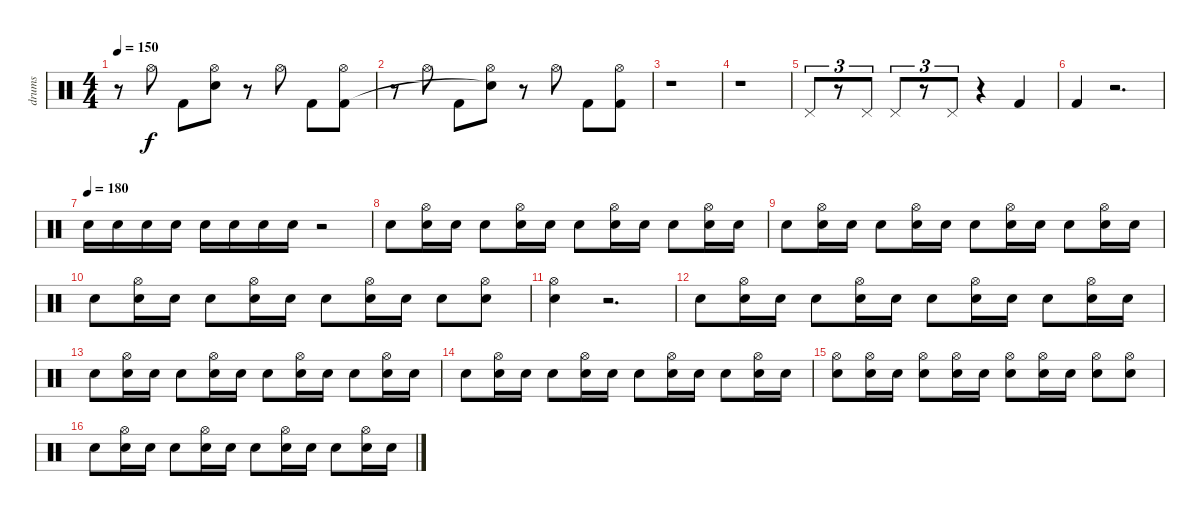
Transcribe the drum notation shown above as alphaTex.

\track ("drums" "drums") {instrument percussion}
\staff {score}
\articulation defaults
\ts (4 4)
\tempo 150
\clef neutral
\ks c
r.8{dy f} "Hi-Hat (open)".8 "Kick (hit) 2".8 ("Hi-Hat (open)" "Snare (hit)"{t}).8 r.8 "Hi-Hat (open)".8 "Kick (hit) 2".8 ("Hi-Hat (open)" "Kick (hit) 2").8 |
r.8 "Hi-Hat (open)".8 "Kick (hit) 2".8 ("Hi-Hat (open)" "Snare (hit)"{t}).8 r.8 "Hi-Hat (open)".8 "Kick (hit) 2".8 ("Hi-Hat (open)" "Kick (hit) 2").8 |
r.1 |
r.1 |
"Pedal Hi-Hat (hit)".8{tu (3 2)} r.8{tu (3 2)} "Pedal Hi-Hat (hit)".8{tu (3 2)} "Pedal Hi-Hat (hit)".8{tu (3 2)} r.8{tu (3 2)} "Pedal Hi-Hat (hit)".8{tu (3 2)} r.4 "Kick (hit) 2".4 |
"Kick (hit) 2".4 r.2{d} |
\tempo (180)
"Snare (hit) 2".16 "Snare (hit) 2".16 "Snare (hit) 2".16 "Snare (hit) 2".16 "Snare (hit) 2".16 "Snare (hit) 2".16 "Snare (hit) 2".16 "Snare (hit) 2".16 r.2 |
"Snare (hit) 2".8 ("Hi-Hat (open)" "Snare (hit) 2").16 "Snare (hit) 2".16 "Snare (hit) 2".8 ("Hi-Hat (open)" "Snare (hit) 2").16 "Snare (hit) 2".16 "Snare (hit) 2".8 ("Hi-Hat (open)" "Snare (hit) 2").16 "Snare (hit) 2".16 "Snare (hit) 2".8 ("Hi-Hat (open)" "Snare (hit) 2").16 "Snare (hit) 2".16 |
"Snare (hit) 2".8 ("Hi-Hat (open)" "Snare (hit) 2").16 "Snare (hit) 2".16 "Snare (hit) 2".8 ("Hi-Hat (open)" "Snare (hit) 2").16 "Snare (hit) 2".16 "Snare (hit) 2".8 ("Hi-Hat (open)" "Snare (hit) 2").16 "Snare (hit) 2".16 "Snare (hit) 2".8 ("Hi-Hat (open)" "Snare (hit) 2").16 "Snare (hit) 2".16 |
"Snare (hit) 2".8 ("Hi-Hat (open)" "Snare (hit) 2").16 "Snare (hit) 2".16 "Snare (hit) 2".8 ("Hi-Hat (open)" "Snare (hit) 2").16 "Snare (hit) 2".16 "Snare (hit) 2".8 ("Hi-Hat (open)" "Snare (hit) 2").16 "Snare (hit) 2".16 "Snare (hit) 2".8 ("Hi-Hat (open)" "Snare (hit) 2").8 |
("Hi-Hat (open)" "Snare (hit) 2").4 r.2{d} |
"Snare (hit) 2".8 ("Hi-Hat (open)" "Snare (hit) 2").16 "Snare (hit) 2".16 "Snare (hit) 2".8 ("Hi-Hat (open)" "Snare (hit) 2").16 "Snare (hit) 2".16 "Snare (hit) 2".8 ("Hi-Hat (open)" "Snare (hit) 2").16 "Snare (hit) 2".16 "Snare (hit) 2".8 ("Hi-Hat (open)" "Snare (hit) 2").16 "Snare (hit) 2".16 |
"Snare (hit) 2".8 ("Hi-Hat (open)" "Snare (hit) 2").16 "Snare (hit) 2".16 "Snare (hit) 2".8 ("Hi-Hat (open)" "Snare (hit) 2").16 "Snare (hit) 2".16 "Snare (hit) 2".8 ("Hi-Hat (open)" "Snare (hit) 2").16 "Snare (hit) 2".16 "Snare (hit) 2".8 ("Hi-Hat (open)" "Snare (hit) 2").16 "Snare (hit) 2".16 |
"Snare (hit) 2".8 ("Hi-Hat (open)" "Snare (hit) 2").16 "Snare (hit) 2".16 "Snare (hit) 2".8 ("Hi-Hat (open)" "Snare (hit) 2").16 "Snare (hit) 2".16 "Snare (hit) 2".8 ("Hi-Hat (open)" "Snare (hit) 2").16 "Snare (hit) 2".16 "Snare (hit) 2".8 ("Hi-Hat (open)" "Snare (hit) 2").16 "Snare (hit) 2".16 |
("Hi-Hat (open)" "Snare (hit) 2").8 ("Hi-Hat (open)" "Snare (hit) 2").16 "Snare (hit) 2".16 ("Hi-Hat (open)" "Snare (hit) 2").8 ("Hi-Hat (open)" "Snare (hit) 2").16 "Snare (hit) 2".16 ("Hi-Hat (open)" "Snare (hit) 2").8 ("Hi-Hat (open)" "Snare (hit) 2").16 "Snare (hit) 2".16 ("Hi-Hat (open)" "Snare (hit) 2").8 ("Hi-Hat (open)" "Snare (hit) 2").8 |
"Snare (hit) 2".8 ("Hi-Hat (open)" "Snare (hit) 2").16 "Snare (hit) 2".16 "Snare (hit) 2".8 ("Hi-Hat (open)" "Snare (hit) 2").16 "Snare (hit) 2".16 "Snare (hit) 2".8 ("Hi-Hat (open)" "Snare (hit) 2").16 "Snare (hit) 2".16 "Snare (hit) 2".8 ("Hi-Hat (open)" "Snare (hit) 2").16 "Snare (hit) 2".16
